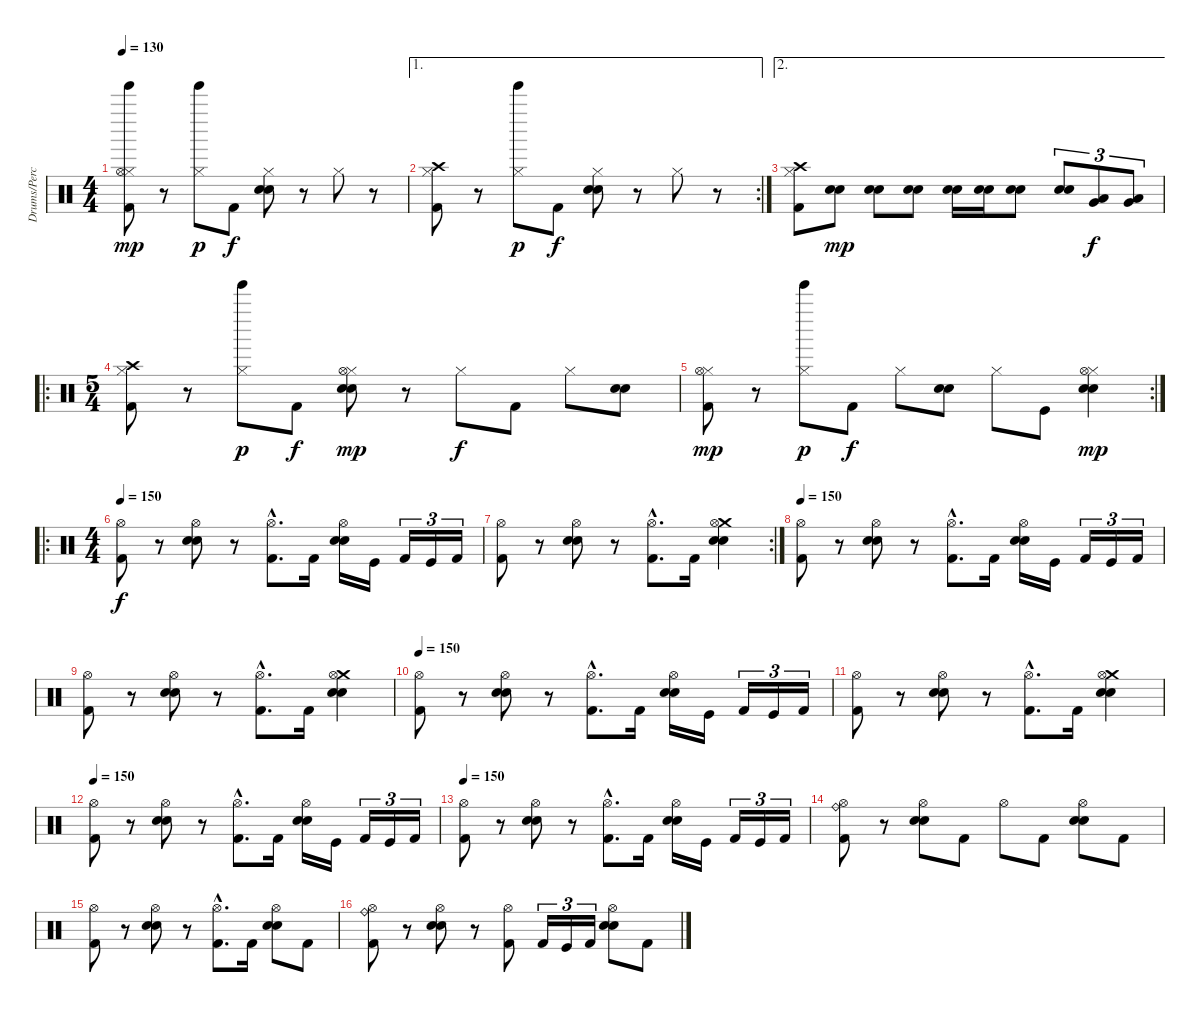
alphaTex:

\track ("Drums/Percussion" "Drums/Perc") {instrument percussion}
\staff {score}
\articulation defaults
\ts (4 4)
\tempo 130
\clef neutral
\ks c
("Hi-Hat (closed)" "Hi-Hat (open)" "Tinkle Bell (hit)" "Kick (hit) 2").8{dy mp} r.8 ("Hi-Hat (closed)" "Tinkle Bell (hit)").8{dy p} "Kick (hit) 2".8{dy f} ("Hi-Hat (closed)" "Snare (hit) 2" "Electric Snare (hit)").8 r.8 "Hi-Hat (closed)".8 r.8 |
\ae 1
\rc 2
("Hi-Hat (closed)" "Crash high (hit)" "Kick (hit) 2").8 r.8 ("Hi-Hat (closed)" "Tinkle Bell (hit)").8{dy p} "Kick (hit) 2".8{dy f} ("Hi-Hat (closed)" "Snare (hit) 2" "Electric Snare (hit)").8 r.8 "Hi-Hat (closed)".8 r.8 |
\ae 2
("Hi-Hat (closed)" "Crash high (hit)" "Kick (hit) 2").8 ("Snare (hit) 2" "Electric Snare (hit)").8{dy mp} ("Snare (hit) 2" "Electric Snare (hit)").8 ("Snare (hit) 2" "Electric Snare (hit)").8 ("Snare (hit) 2" "Electric Snare (hit)").16 ("Snare (hit) 2" "Electric Snare (hit)").16 ("Snare (hit) 2" "Electric Snare (hit)").8 ("Snare (hit) 2" "Electric Snare (hit)").8{tu (3 2)} ("Low Tom (hit)" "Very Low Tom (hit)").8{tu (3 2) dy f} ("Very Low Tom (hit)" "Low Floor Tom (hit)").8{tu (3 2)} |
\ro
\ts (5 4)
("Hi-Hat (closed)" "Crash high (hit)" "Kick (hit) 2").8 r.8 ("Hi-Hat (closed)" "Tinkle Bell (hit)").8{dy p} "Kick (hit) 2".8{dy f} ("Hi-Hat (closed)" "Hi-Hat (open)" "Snare (hit) 2" "Electric Snare (hit)").8{dy mp} r.8 "Hi-Hat (closed)".8{dy f} "Kick (hit) 2".8 "Hi-Hat (closed)".8 ("Snare (hit) 2" "Electric Snare (hit)").8 |
\rc 2
("Hi-Hat (closed)" "Hi-Hat (open)" "Kick (hit) 2").8{dy mp} r.8 ("Hi-Hat (closed)" "Tinkle Bell (hit)").8{dy p} "Kick (hit) 2".8{dy f} "Hi-Hat (closed)".8 ("Snare (hit) 2" "Electric Snare (hit)").8 "Hi-Hat (closed)".8 "Kick (hit)".8 ("Hi-Hat (closed)" "Hi-Hat (open)" "Snare (hit) 2" "Electric Snare (hit)").4{dy mp} |
\ro
\ts (4 4)
\tempo 150
("Hi-Hat (open)" "Kick (hit) 2").8{dy f volume 13} r.8 ("Hi-Hat (open)" "Electric Snare (hit)" "Snare (hit) 2").8 r.8 ("Hi-Hat (open)"{hac} "Kick (hit) 2"{hac}).8{d} "Kick (hit) 2".16 ("Hi-Hat (open)" "Electric Snare (hit)" "Snare (hit) 2").16 "Kick (hit)".16 "Kick (hit) 2".16{tu (3 2)} "Kick (hit)".16{tu (3 2)} "Kick (hit) 2".16{tu (3 2)} |
\rc 2
("Hi-Hat (open)" "Kick (hit) 2").8 r.8 ("Hi-Hat (open)" "Electric Snare (hit)" "Snare (hit) 2").8 r.8 ("Hi-Hat (open)"{hac} "Kick (hit) 2"{hac}).8{d} "Kick (hit) 2".16 ("Crash medium (hit)" "Hi-Hat (open)" "Electric Snare (hit)" "Snare (hit) 2").4 |
\tempo 150
("Hi-Hat (open)" "Kick (hit) 2").8{volume 13} r.8 ("Hi-Hat (open)" "Electric Snare (hit)" "Snare (hit) 2").8 r.8 ("Hi-Hat (open)"{hac} "Kick (hit) 2"{hac}).8{d} "Kick (hit) 2".16 ("Hi-Hat (open)" "Electric Snare (hit)" "Snare (hit) 2").16 "Kick (hit)".16 "Kick (hit) 2".16{tu (3 2)} "Kick (hit)".16{tu (3 2)} "Kick (hit) 2".16{tu (3 2)} |
("Hi-Hat (open)" "Kick (hit) 2").8 r.8 ("Hi-Hat (open)" "Electric Snare (hit)" "Snare (hit) 2").8 r.8 ("Hi-Hat (open)"{hac} "Kick (hit) 2"{hac}).8{d} "Kick (hit) 2".16 ("Crash medium (hit)" "Hi-Hat (open)" "Electric Snare (hit)" "Snare (hit) 2").4 |
\tempo 150
("Hi-Hat (open)" "Kick (hit) 2").8{volume 13} r.8 ("Hi-Hat (open)" "Electric Snare (hit)" "Snare (hit) 2").8 r.8 ("Hi-Hat (open)"{hac} "Kick (hit) 2"{hac}).8{d} "Kick (hit) 2".16 ("Hi-Hat (open)" "Electric Snare (hit)" "Snare (hit) 2").16 "Kick (hit)".16 "Kick (hit) 2".16{tu (3 2)} "Kick (hit)".16{tu (3 2)} "Kick (hit) 2".16{tu (3 2)} |
("Hi-Hat (open)" "Kick (hit) 2").8 r.8 ("Hi-Hat (open)" "Electric Snare (hit)" "Snare (hit) 2").8 r.8 ("Hi-Hat (open)"{hac} "Kick (hit) 2"{hac}).8{d} "Kick (hit) 2".16 ("Crash medium (hit)" "Hi-Hat (open)" "Electric Snare (hit)" "Snare (hit) 2").4 |
\tempo 150
("Hi-Hat (open)" "Kick (hit) 2").8{volume 13} r.8 ("Hi-Hat (open)" "Electric Snare (hit)" "Snare (hit) 2").8 r.8 ("Hi-Hat (open)"{hac} "Kick (hit) 2"{hac}).8{d} "Kick (hit) 2".16 ("Hi-Hat (open)" "Electric Snare (hit)" "Snare (hit) 2").16 "Kick (hit)".16 "Kick (hit) 2".16{tu (3 2)} "Kick (hit)".16{tu (3 2)} "Kick (hit) 2".16{tu (3 2)} |
\tempo 150
("Hi-Hat (open)" "Kick (hit) 2").8{volume 13} r.8 ("Hi-Hat (open)" "Electric Snare (hit)" "Snare (hit) 2").8 r.8 ("Hi-Hat (open)"{hac} "Kick (hit) 2"{hac}).8{d} "Kick (hit) 2".16 ("Hi-Hat (open)" "Electric Snare (hit)" "Snare (hit) 2").16 "Kick (hit)".16 "Kick (hit) 2".16{tu (3 2)} "Kick (hit)".16{tu (3 2)} "Kick (hit) 2".16{tu (3 2)} |
("Ride (bell)" "Hi-Hat (open)" "Kick (hit) 2").8 r.8 ("Hi-Hat (open)" "Electric Snare (hit)" "Snare (hit) 2").8 "Kick (hit) 2".8 "Hi-Hat (open)".8 "Kick (hit) 2".8 ("Hi-Hat (open)" "Electric Snare (hit)" "Snare (hit) 2").8 "Kick (hit) 2".8 |
("Hi-Hat (open)" "Kick (hit) 2").8 r.8 ("Hi-Hat (open)" "Electric Snare (hit)" "Snare (hit) 2").8 r.8 ("Hi-Hat (open)"{hac} "Kick (hit) 2"{hac}).8{d} "Kick (hit) 2".16 ("Hi-Hat (open)" "Electric Snare (hit)" "Snare (hit) 2").8 "Kick (hit) 2".8 |
("Ride (bell)" "Hi-Hat (open)" "Kick (hit) 2").8 r.8 ("Hi-Hat (open)" "Electric Snare (hit)" "Snare (hit) 2").8 r.8 ("Hi-Hat (open)" "Kick (hit) 2").8 "Kick (hit) 2".16{tu (3 2)} "Kick (hit)".16{tu (3 2)} "Kick (hit) 2".16{tu (3 2)} ("Hi-Hat (open)" "Electric Snare (hit)" "Snare (hit) 2").8 "Kick (hit) 2".8
